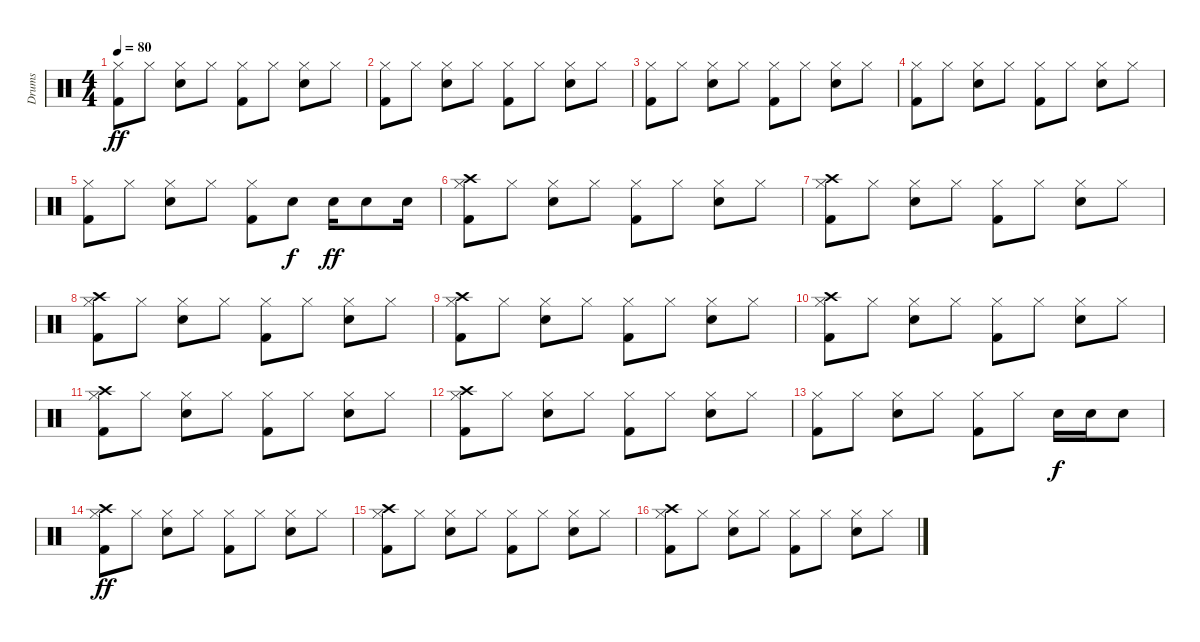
\track ("Drums" "Drums") {instrument percussion}
\staff {score}
\articulation defaults
\ts (4 4)
\tempo 80
\clef neutral
\ks c
("Kick (hit) 2" "Hi-Hat (closed)").8{dy ff volume 12 balance 8} "Hi-Hat (closed)".8 ("Snare (hit) 2" "Hi-Hat (closed)").8 "Hi-Hat (closed)".8 ("Kick (hit) 2" "Hi-Hat (closed)").8 "Hi-Hat (closed)".8 ("Snare (hit) 2" "Hi-Hat (closed)").8 "Hi-Hat (closed)".8 |
("Kick (hit) 2" "Hi-Hat (closed)").8{volume 12 balance 8} "Hi-Hat (closed)".8 ("Snare (hit) 2" "Hi-Hat (closed)").8 "Hi-Hat (closed)".8 ("Kick (hit) 2" "Hi-Hat (closed)").8 "Hi-Hat (closed)".8 ("Snare (hit) 2" "Hi-Hat (closed)").8 "Hi-Hat (closed)".8 |
("Kick (hit) 2" "Hi-Hat (closed)").8{volume 12 balance 8} "Hi-Hat (closed)".8 ("Snare (hit) 2" "Hi-Hat (closed)").8 "Hi-Hat (closed)".8 ("Kick (hit) 2" "Hi-Hat (closed)").8 "Hi-Hat (closed)".8 ("Snare (hit) 2" "Hi-Hat (closed)").8 "Hi-Hat (closed)".8 |
("Kick (hit) 2" "Hi-Hat (closed)").8{volume 12 balance 8} "Hi-Hat (closed)".8 ("Snare (hit) 2" "Hi-Hat (closed)").8 "Hi-Hat (closed)".8 ("Kick (hit) 2" "Hi-Hat (closed)").8 "Hi-Hat (closed)".8 ("Snare (hit) 2" "Hi-Hat (closed)").8 "Hi-Hat (closed)".8 |
("Kick (hit) 2" "Hi-Hat (closed)").8{volume 12 balance 8} "Hi-Hat (closed)".8 ("Snare (hit) 2" "Hi-Hat (closed)").8 "Hi-Hat (closed)".8 ("Kick (hit) 2" "Hi-Hat (closed)").8 "Snare (hit) 2".8{dy f} "Snare (hit) 2".16{dy ff} "Snare (hit) 2".8 "Snare (hit) 2".16 |
("Kick (hit) 2" "Hi-Hat (closed)" "Crash high (hit)").8{volume 12 balance 8} "Hi-Hat (closed)".8 ("Snare (hit) 2" "Hi-Hat (closed)").8 "Hi-Hat (closed)".8 ("Kick (hit) 2" "Hi-Hat (closed)").8 "Hi-Hat (closed)".8 ("Snare (hit) 2" "Hi-Hat (closed)").8 "Hi-Hat (closed)".8 |
("Kick (hit) 2" "Hi-Hat (closed)" "Crash high (hit)").8{volume 14 balance 8} "Hi-Hat (closed)".8 ("Snare (hit) 2" "Hi-Hat (closed)").8 "Hi-Hat (closed)".8 ("Kick (hit) 2" "Hi-Hat (closed)").8 "Hi-Hat (closed)".8 ("Snare (hit) 2" "Hi-Hat (closed)").8 "Hi-Hat (closed)".8 |
("Kick (hit) 2" "Hi-Hat (closed)" "Crash high (hit)").8{volume 14 balance 8} "Hi-Hat (closed)".8 ("Snare (hit) 2" "Hi-Hat (closed)").8 "Hi-Hat (closed)".8 ("Kick (hit) 2" "Hi-Hat (closed)").8 "Hi-Hat (closed)".8 ("Snare (hit) 2" "Hi-Hat (closed)").8 "Hi-Hat (closed)".8 |
("Kick (hit) 2" "Hi-Hat (closed)" "Crash high (hit)").8{volume 14 balance 8} "Hi-Hat (closed)".8 ("Snare (hit) 2" "Hi-Hat (closed)").8 "Hi-Hat (closed)".8 ("Kick (hit) 2" "Hi-Hat (closed)").8 "Hi-Hat (closed)".8 ("Snare (hit) 2" "Hi-Hat (closed)").8 "Hi-Hat (closed)".8 |
("Kick (hit) 2" "Hi-Hat (closed)" "Crash high (hit)").8{volume 14 balance 8} "Hi-Hat (closed)".8 ("Snare (hit) 2" "Hi-Hat (closed)").8 "Hi-Hat (closed)".8 ("Kick (hit) 2" "Hi-Hat (closed)").8 "Hi-Hat (closed)".8 ("Snare (hit) 2" "Hi-Hat (closed)").8 "Hi-Hat (closed)".8 |
("Kick (hit) 2" "Hi-Hat (closed)" "Crash high (hit)").8{volume 14 balance 8} "Hi-Hat (closed)".8 ("Snare (hit) 2" "Hi-Hat (closed)").8 "Hi-Hat (closed)".8 ("Kick (hit) 2" "Hi-Hat (closed)").8 "Hi-Hat (closed)".8 ("Snare (hit) 2" "Hi-Hat (closed)").8 "Hi-Hat (closed)".8 |
("Kick (hit) 2" "Hi-Hat (closed)" "Crash high (hit)").8{volume 14 balance 8} "Hi-Hat (closed)".8 ("Snare (hit) 2" "Hi-Hat (closed)").8 "Hi-Hat (closed)".8 ("Kick (hit) 2" "Hi-Hat (closed)").8 "Hi-Hat (closed)".8 ("Snare (hit) 2" "Hi-Hat (closed)").8 "Hi-Hat (closed)".8 |
("Kick (hit) 2" "Hi-Hat (closed)").8{volume 12 balance 8} "Hi-Hat (closed)".8 ("Snare (hit) 2" "Hi-Hat (closed)").8 "Hi-Hat (closed)".8 ("Kick (hit) 2" "Hi-Hat (closed)").8 "Hi-Hat (closed)".8 "Snare (hit) 2".16{dy f} "Snare (hit) 2".16 "Snare (hit) 2".8 |
("Kick (hit) 2" "Hi-Hat (closed)" "Crash high (hit)").8{dy ff volume 14 balance 8} "Hi-Hat (closed)".8 ("Snare (hit) 2" "Hi-Hat (closed)").8 "Hi-Hat (closed)".8 ("Kick (hit) 2" "Hi-Hat (closed)").8 "Hi-Hat (closed)".8 ("Snare (hit) 2" "Hi-Hat (closed)").8 "Hi-Hat (closed)".8 |
("Kick (hit) 2" "Hi-Hat (closed)" "Crash high (hit)").8{volume 14 balance 8} "Hi-Hat (closed)".8 ("Snare (hit) 2" "Hi-Hat (closed)").8 "Hi-Hat (closed)".8 ("Kick (hit) 2" "Hi-Hat (closed)").8 "Hi-Hat (closed)".8 ("Snare (hit) 2" "Hi-Hat (closed)").8 "Hi-Hat (closed)".8 |
("Kick (hit) 2" "Hi-Hat (closed)" "Crash high (hit)").8{volume 14 balance 8} "Hi-Hat (closed)".8 ("Snare (hit) 2" "Hi-Hat (closed)").8 "Hi-Hat (closed)".8 ("Kick (hit) 2" "Hi-Hat (closed)").8 "Hi-Hat (closed)".8 ("Snare (hit) 2" "Hi-Hat (closed)").8 "Hi-Hat (closed)".8
